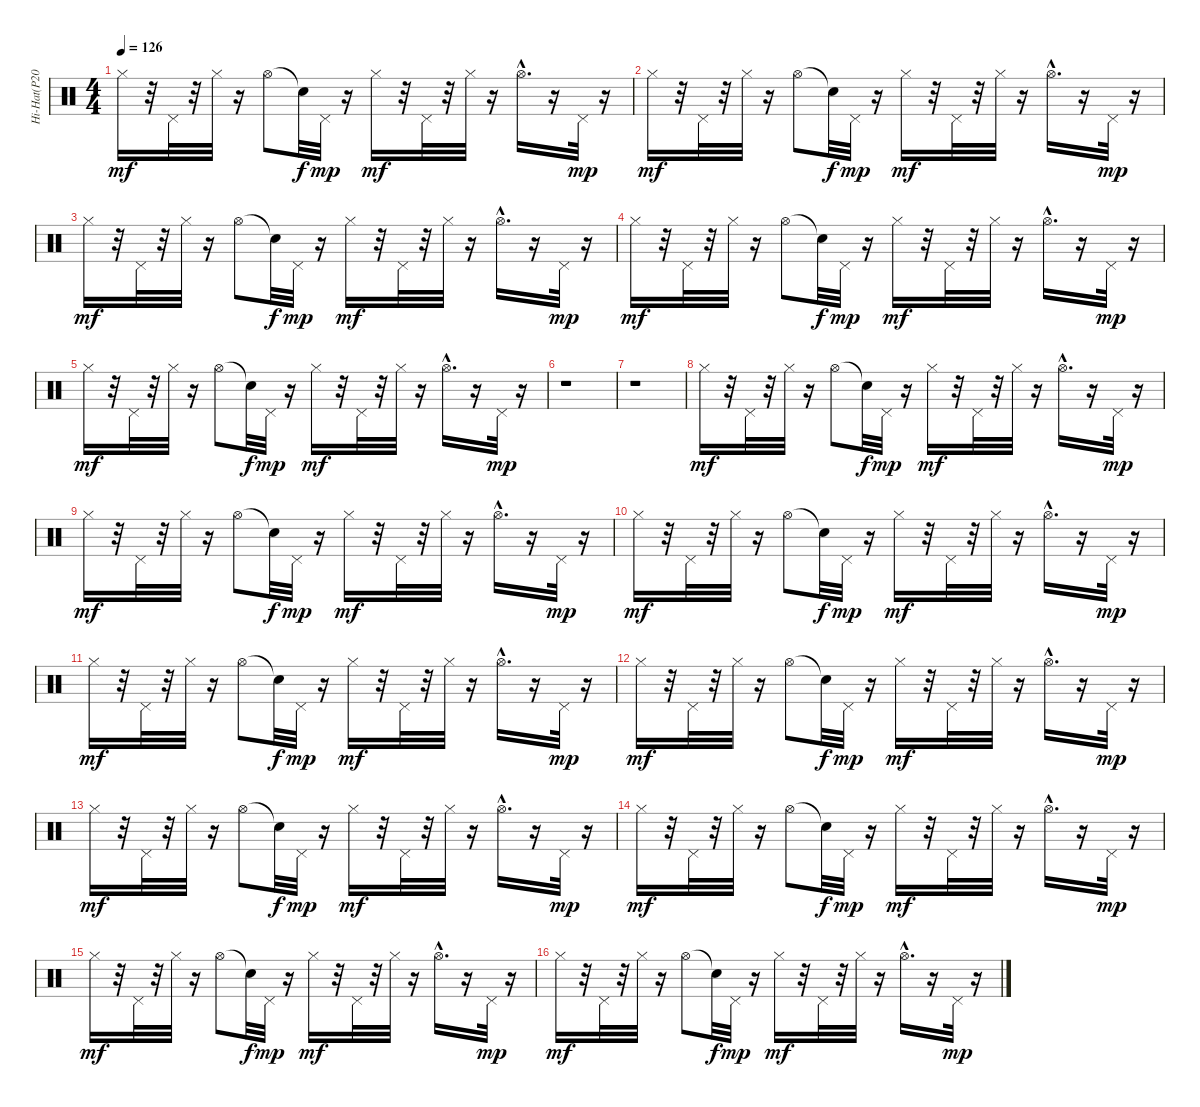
\track ("Hi-Hat(P201)" "Hi-Hat(P20") {instrument percussion}
\staff {score}
\articulation defaults
\ts (4 4)
\tempo 126
\clef neutral
\ks c "Hi-Hat (closed)".16{dy mf}
r.32 "Pedal Hi-Hat (hit)".32 r.32 "Hi-Hat (closed)".32 r.16 "Hi-Hat (open)".8 "Snare (hit)"{t}.32{dy f} "Pedal Hi-Hat (hit)".32{dy mp} r.16 "Hi-Hat (closed)".16{dy mf} r.32 "Pedal Hi-Hat (hit)".32 r.32 "Hi-Hat (closed)".32 r.16 "Hi-Hat (open)"{hac}.16{d} r.16 "Pedal Hi-Hat (hit)".32{dy mp} r.16 |
"Hi-Hat (closed)".16{dy mf} r.32 "Pedal Hi-Hat (hit)".32 r.32 "Hi-Hat (closed)".32 r.16 "Hi-Hat (open)".8 "Snare (hit)"{t}.32{dy f} "Pedal Hi-Hat (hit)".32{dy mp} r.16 "Hi-Hat (closed)".16{dy mf} r.32 "Pedal Hi-Hat (hit)".32 r.32 "Hi-Hat (closed)".32 r.16 "Hi-Hat (open)"{hac}.16{d} r.16 "Pedal Hi-Hat (hit)".32{dy mp} r.16 |
"Hi-Hat (closed)".16{dy mf} r.32 "Pedal Hi-Hat (hit)".32 r.32 "Hi-Hat (closed)".32 r.16 "Hi-Hat (open)".8 "Snare (hit)"{t}.32{dy f} "Pedal Hi-Hat (hit)".32{dy mp} r.16 "Hi-Hat (closed)".16{dy mf} r.32 "Pedal Hi-Hat (hit)".32 r.32 "Hi-Hat (closed)".32 r.16 "Hi-Hat (open)"{hac}.16{d} r.16 "Pedal Hi-Hat (hit)".32{dy mp} r.16 |
"Hi-Hat (closed)".16{dy mf} r.32 "Pedal Hi-Hat (hit)".32 r.32 "Hi-Hat (closed)".32 r.16 "Hi-Hat (open)".8 "Snare (hit)"{t}.32{dy f} "Pedal Hi-Hat (hit)".32{dy mp} r.16 "Hi-Hat (closed)".16{dy mf} r.32 "Pedal Hi-Hat (hit)".32 r.32 "Hi-Hat (closed)".32 r.16 "Hi-Hat (open)"{hac}.16{d} r.16 "Pedal Hi-Hat (hit)".32{dy mp} r.16 |
"Hi-Hat (closed)".16{dy mf} r.32 "Pedal Hi-Hat (hit)".32 r.32 "Hi-Hat (closed)".32 r.16 "Hi-Hat (open)".8 "Snare (hit)"{t}.32{dy f} "Pedal Hi-Hat (hit)".32{dy mp} r.16 "Hi-Hat (closed)".16{dy mf} r.32 "Pedal Hi-Hat (hit)".32 r.32 "Hi-Hat (closed)".32 r.16 "Hi-Hat (open)"{hac}.16{d} r.16 "Pedal Hi-Hat (hit)".32{dy mp} r.16 |
r.1 |
r.1 |
"Hi-Hat (closed)".16{dy mf} r.32 "Pedal Hi-Hat (hit)".32 r.32 "Hi-Hat (closed)".32 r.16 "Hi-Hat (open)".8 "Snare (hit)"{t}.32{dy f} "Pedal Hi-Hat (hit)".32{dy mp} r.16 "Hi-Hat (closed)".16{dy mf} r.32 "Pedal Hi-Hat (hit)".32 r.32 "Hi-Hat (closed)".32 r.16 "Hi-Hat (open)"{hac}.16{d} r.16 "Pedal Hi-Hat (hit)".32{dy mp} r.16 |
"Hi-Hat (closed)".16{dy mf} r.32 "Pedal Hi-Hat (hit)".32 r.32 "Hi-Hat (closed)".32 r.16 "Hi-Hat (open)".8 "Snare (hit)"{t}.32{dy f} "Pedal Hi-Hat (hit)".32{dy mp} r.16 "Hi-Hat (closed)".16{dy mf} r.32 "Pedal Hi-Hat (hit)".32 r.32 "Hi-Hat (closed)".32 r.16 "Hi-Hat (open)"{hac}.16{d} r.16 "Pedal Hi-Hat (hit)".32{dy mp} r.16 |
"Hi-Hat (closed)".16{dy mf} r.32 "Pedal Hi-Hat (hit)".32 r.32 "Hi-Hat (closed)".32 r.16 "Hi-Hat (open)".8 "Snare (hit)"{t}.32{dy f} "Pedal Hi-Hat (hit)".32{dy mp} r.16 "Hi-Hat (closed)".16{dy mf} r.32 "Pedal Hi-Hat (hit)".32 r.32 "Hi-Hat (closed)".32 r.16 "Hi-Hat (open)"{hac}.16{d} r.16 "Pedal Hi-Hat (hit)".32{dy mp} r.16 |
"Hi-Hat (closed)".16{dy mf} r.32 "Pedal Hi-Hat (hit)".32 r.32 "Hi-Hat (closed)".32 r.16 "Hi-Hat (open)".8 "Snare (hit)"{t}.32{dy f} "Pedal Hi-Hat (hit)".32{dy mp} r.16 "Hi-Hat (closed)".16{dy mf} r.32 "Pedal Hi-Hat (hit)".32 r.32 "Hi-Hat (closed)".32 r.16 "Hi-Hat (open)"{hac}.16{d} r.16 "Pedal Hi-Hat (hit)".32{dy mp} r.16 |
"Hi-Hat (closed)".16{dy mf} r.32 "Pedal Hi-Hat (hit)".32 r.32 "Hi-Hat (closed)".32 r.16 "Hi-Hat (open)".8 "Snare (hit)"{t}.32{dy f} "Pedal Hi-Hat (hit)".32{dy mp} r.16 "Hi-Hat (closed)".16{dy mf} r.32 "Pedal Hi-Hat (hit)".32 r.32 "Hi-Hat (closed)".32 r.16 "Hi-Hat (open)"{hac}.16{d} r.16 "Pedal Hi-Hat (hit)".32{dy mp} r.16 |
"Hi-Hat (closed)".16{dy mf} r.32 "Pedal Hi-Hat (hit)".32 r.32 "Hi-Hat (closed)".32 r.16 "Hi-Hat (open)".8 "Snare (hit)"{t}.32{dy f} "Pedal Hi-Hat (hit)".32{dy mp} r.16 "Hi-Hat (closed)".16{dy mf} r.32 "Pedal Hi-Hat (hit)".32 r.32 "Hi-Hat (closed)".32 r.16 "Hi-Hat (open)"{hac}.16{d} r.16 "Pedal Hi-Hat (hit)".32{dy mp} r.16 |
"Hi-Hat (closed)".16{dy mf} r.32 "Pedal Hi-Hat (hit)".32 r.32 "Hi-Hat (closed)".32 r.16 "Hi-Hat (open)".8 "Snare (hit)"{t}.32{dy f} "Pedal Hi-Hat (hit)".32{dy mp} r.16 "Hi-Hat (closed)".16{dy mf} r.32 "Pedal Hi-Hat (hit)".32 r.32 "Hi-Hat (closed)".32 r.16 "Hi-Hat (open)"{hac}.16{d} r.16 "Pedal Hi-Hat (hit)".32{dy mp} r.16 |
"Hi-Hat (closed)".16{dy mf} r.32 "Pedal Hi-Hat (hit)".32 r.32 "Hi-Hat (closed)".32 r.16 "Hi-Hat (open)".8 "Snare (hit)"{t}.32{dy f} "Pedal Hi-Hat (hit)".32{dy mp} r.16 "Hi-Hat (closed)".16{dy mf} r.32 "Pedal Hi-Hat (hit)".32 r.32 "Hi-Hat (closed)".32 r.16 "Hi-Hat (open)"{hac}.16{d} r.16 "Pedal Hi-Hat (hit)".32{dy mp} r.16 |
"Hi-Hat (closed)".16{dy mf} r.32 "Pedal Hi-Hat (hit)".32 r.32 "Hi-Hat (closed)".32 r.16 "Hi-Hat (open)".8 "Snare (hit)"{t}.32{dy f} "Pedal Hi-Hat (hit)".32{dy mp} r.16 "Hi-Hat (closed)".16{dy mf} r.32 "Pedal Hi-Hat (hit)".32 r.32 "Hi-Hat (closed)".32 r.16 "Hi-Hat (open)"{hac}.16{d} r.16 "Pedal Hi-Hat (hit)".32{dy mp} r.16
